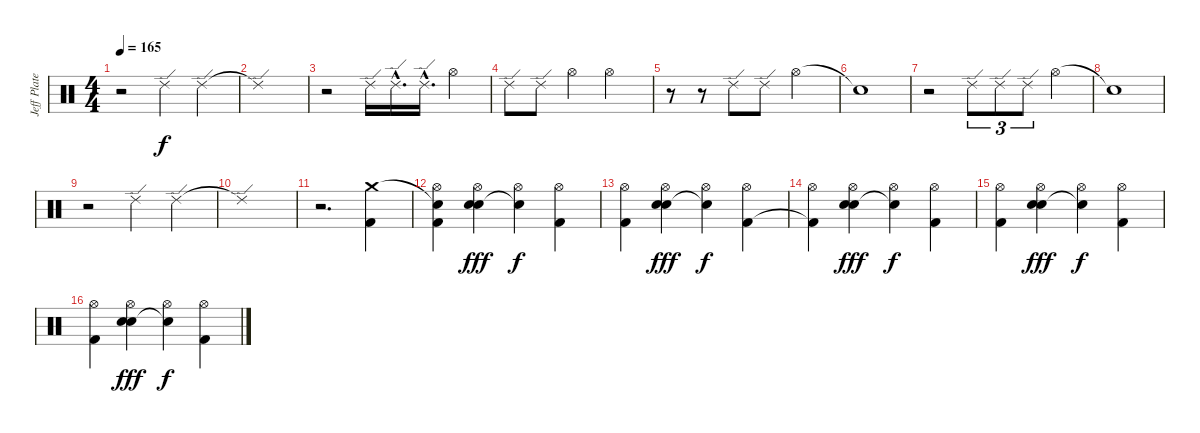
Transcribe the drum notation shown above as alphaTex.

\track ("Jeff Plate" "Jeff Plate") {instrument percussion}
\staff {score}
\articulation defaults
\ts (4 4)
\tempo 165
\clef neutral
\ks c
r.2{dy f} "Ride (edge) 2".4 "Ride (edge) 2".4 |
"Ride (edge) 2"{t}.1 |
r.2 "Ride (edge) 2".16 "Ride (edge) 2"{hac}.16{d} "Ride (edge) 2"{hac}.16{d} "Hi-Hat (open)".4 |
"Ride (edge) 2".8 "Ride (edge) 2".8 "Hi-Hat (open)".4 "Hi-Hat (open)".2 |
r.8 r.8 "Ride (edge) 2".8 "Ride (edge) 2".8 "Hi-Hat (open)".2 |
"Snare (hit)"{t}.1 |
r.2 "Ride (edge) 2".8{tu (3 2)} "Ride (edge) 2".8{tu (3 2)} "Ride (edge) 2".8{tu (3 2)} "Hi-Hat (open)".4 |
"Snare (hit)"{t}.1 |
r.2 "Ride (edge) 2".4 "Ride (edge) 2".4 |
"Ride (edge) 2"{t}.1 |
r.2{d} ("Crash medium (hit)" "Kick (hit) 2").4 |
("Snare (hit)"{t} "Hi-Hat (open)" "Kick (hit) 2").4 ("Hi-Hat (open)" "Electric Snare (hit)" "Electric Snare (hit)").4{dy fff} ("Hi-Hat (open)" "Snare (hit)"{t}).4{dy f} ("Hi-Hat (open)" "Kick (hit) 2").4 |
("Hi-Hat (open)" "Kick (hit) 2").4 ("Hi-Hat (open)" "Electric Snare (hit)" "Electric Snare (hit)").4{dy fff} ("Hi-Hat (open)" "Snare (hit)"{t}).4{dy f} ("Hi-Hat (open)" "Kick (hit) 2").4 |
("Hi-Hat (open)" "Kick (hit) 2"{t}).4 ("Hi-Hat (open)" "Electric Snare (hit)" "Electric Snare (hit)").4{dy fff} ("Hi-Hat (open)" "Snare (hit)"{t}).4{dy f} ("Hi-Hat (open)" "Kick (hit) 2").4 |
("Hi-Hat (open)" "Kick (hit) 2").4 ("Hi-Hat (open)" "Electric Snare (hit)" "Electric Snare (hit)").4{dy fff} ("Hi-Hat (open)" "Snare (hit)"{t}).4{dy f} ("Hi-Hat (open)" "Kick (hit) 2").4 |
("Hi-Hat (open)" "Kick (hit) 2").4 ("Hi-Hat (open)" "Electric Snare (hit)" "Electric Snare (hit)").4{dy fff} ("Hi-Hat (open)" "Snare (hit)"{t}).4{dy f} ("Hi-Hat (open)" "Kick (hit) 2").4
